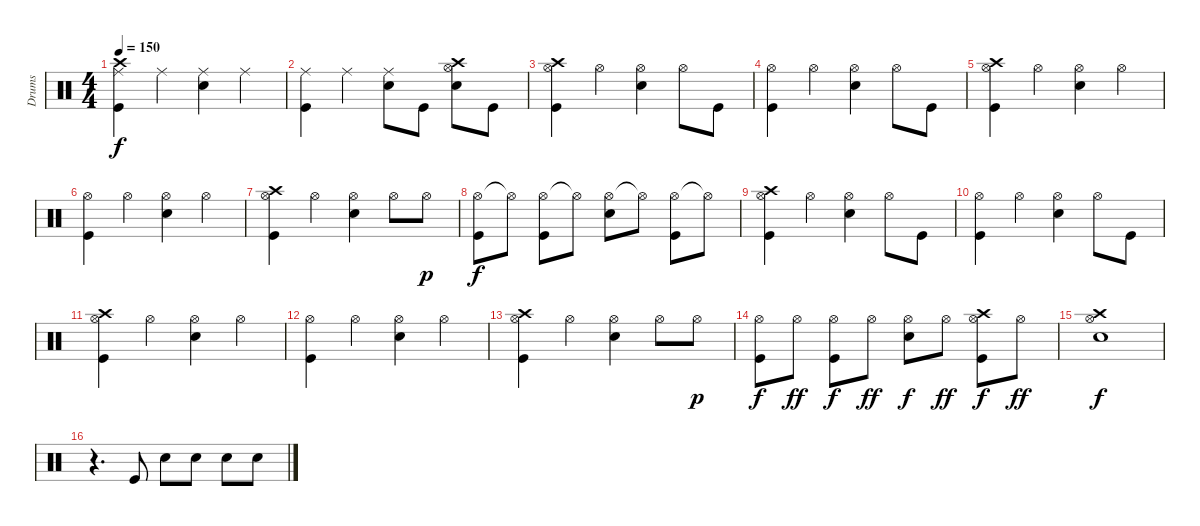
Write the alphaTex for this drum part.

\track ("Drums" "Drums") {instrument percussion}
\staff {score}
\articulation defaults
\ts (4 4)
\tempo 150
\clef neutral
\ks c
("Crash high (hit)" "Ride (middle)" "Kick (hit)").4{dy f} "Ride (middle)".4 ("Ride (middle)" "Electric Snare (hit)").4 "Ride (middle)".4 |
("Ride (middle)" "Kick (hit)").4 "Ride (middle)".4 ("Ride (middle)" "Electric Snare (hit)").8 "Kick (hit)".8 ("Crash high (hit)" "Hi-Hat (open)" "Electric Snare (hit)").8 "Kick (hit)".8 |
("Crash high (hit)" "Hi-Hat (open)" "Kick (hit)").4 "Hi-Hat (open)".4 ("Hi-Hat (open)" "Electric Snare (hit)").4 "Hi-Hat (open)".8 "Kick (hit)".8 |
("Hi-Hat (open)" "Kick (hit)").4 "Hi-Hat (open)".4 ("Hi-Hat (open)" "Electric Snare (hit)").4 "Hi-Hat (open)".8 "Kick (hit)".8 |
("Crash high (hit)" "Hi-Hat (open)" "Kick (hit)").4 "Hi-Hat (open)".4 ("Hi-Hat (open)" "Electric Snare (hit)").4 "Hi-Hat (open)".4 |
("Hi-Hat (open)" "Kick (hit)").4 "Hi-Hat (open)".4 ("Hi-Hat (open)" "Electric Snare (hit)").4 "Hi-Hat (open)".4 |
("Crash high (hit)" "Hi-Hat (open)" "Kick (hit)").4 "Hi-Hat (open)".4 ("Hi-Hat (open)" "Electric Snare (hit)").4 "Hi-Hat (open)".8 "Hi-Hat (open)".8{dy p} |
("Hi-Hat (open)" "Kick (hit)").8{dy f} "Hi-Hat (open)"{t}.8 ("Hi-Hat (open)" "Kick (hit)").8 "Hi-Hat (open)"{t}.8 ("Hi-Hat (open)" "Electric Snare (hit)").8 "Hi-Hat (open)"{t}.8 ("Hi-Hat (open)" "Kick (hit)").8 "Hi-Hat (open)"{t}.8 |
("Crash high (hit)" "Hi-Hat (open)" "Kick (hit)").4 "Hi-Hat (open)".4 ("Hi-Hat (open)" "Electric Snare (hit)").4 "Hi-Hat (open)".8 "Kick (hit)".8 |
("Hi-Hat (open)" "Kick (hit)").4 "Hi-Hat (open)".4 ("Hi-Hat (open)" "Electric Snare (hit)").4 "Hi-Hat (open)".8 "Kick (hit)".8 |
("Crash high (hit)" "Hi-Hat (open)" "Kick (hit)").4 "Hi-Hat (open)".4 ("Hi-Hat (open)" "Electric Snare (hit)").4 "Hi-Hat (open)".4 |
("Hi-Hat (open)" "Kick (hit)").4 "Hi-Hat (open)".4 ("Hi-Hat (open)" "Electric Snare (hit)").4 "Hi-Hat (open)".4 |
("Crash high (hit)" "Hi-Hat (open)" "Kick (hit)").4 "Hi-Hat (open)".4 ("Hi-Hat (open)" "Electric Snare (hit)").4 "Hi-Hat (open)".8 "Hi-Hat (open)".8{dy p} |
("Hi-Hat (open)" "Kick (hit)").8{dy f} "Hi-Hat (open)".8{dy ff} ("Hi-Hat (open)" "Kick (hit)").8{dy f} "Hi-Hat (open)".8{dy ff} ("Hi-Hat (open)" "Electric Snare (hit)").8{dy f} "Hi-Hat (open)".8{dy ff} ("Crash high (hit)" "Hi-Hat (open)" "Kick (hit)").8{dy f} "Hi-Hat (open)".8{dy ff} |
("Crash high (hit)" "Hi-Hat (open)" "Electric Snare (hit)").1{dy f} |
r.4{d} "Kick (hit)".8 "Electric Snare (hit)".8 "Electric Snare (hit)".8 "Electric Snare (hit)".8 "Electric Snare (hit)".8
